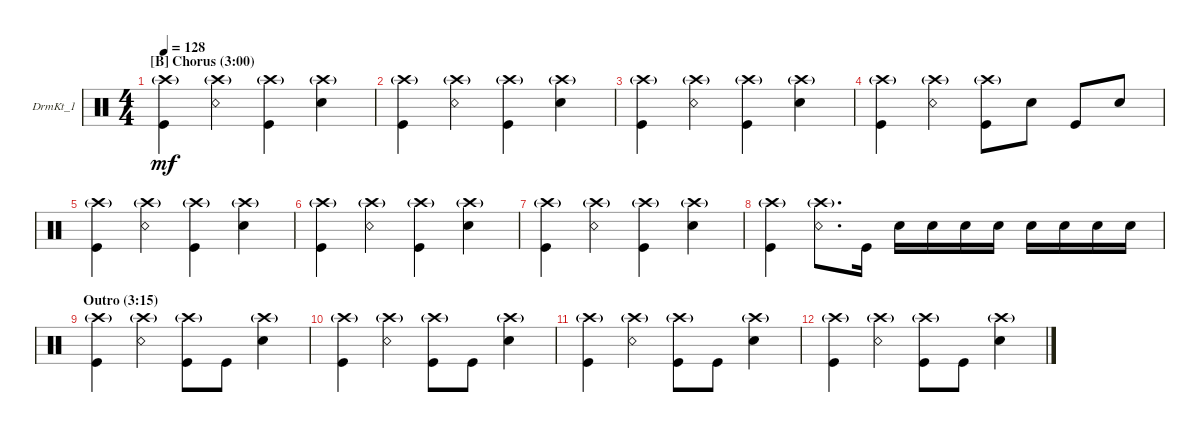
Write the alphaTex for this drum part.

\defaultSystemsLayout 4
\bracketExtendMode groupsimilarinstruments
\firstSystemTrackNameOrientation horizontal
\otherSystemsTrackNameOrientation horizontal
\track ("DrmKt_1" "DrmKt_1") {instrument percussion}
\staff {score}
\articulation defaults
\ts (4 4)
\section ("B" "Chorus (3:00)")
\tempo 128
\clef neutral
\ks c
("Kick (hit)" "Crash high (hit)"{g}).4{dy mf} ("Snare (rim shot)" "Crash high (hit)"{g}).4 ("Kick (hit)" "Crash high (hit)"{g}).4 ("Snare (hit) 2" "Crash high (hit)"{g}).4 |
("Kick (hit)" "Crash high (hit)"{g}).4 ("Snare (rim shot)" "Crash high (hit)"{g}).4 ("Kick (hit)" "Crash high (hit)"{g}).4 ("Snare (hit) 2" "Crash high (hit)"{g}).4 |
("Kick (hit)" "Crash high (hit)"{g}).4 ("Snare (rim shot)" "Crash high (hit)"{g}).4 ("Kick (hit)" "Crash high (hit)"{g}).4 ("Snare (hit) 2" "Crash high (hit)"{g}).4 |
("Kick (hit)" "Crash high (hit)"{g}).4 ("Snare (rim shot)" "Crash high (hit)"{g}).4 ("Kick (hit)" "Crash high (hit)"{g}).8 "Snare (hit) 2".8 "Kick (hit)".8 "Snare (hit) 2".8 |
("Kick (hit)" "Crash high (hit)"{g}).4 ("Snare (rim shot)" "Crash high (hit)"{g}).4 ("Kick (hit)" "Crash high (hit)"{g}).4 ("Snare (hit) 2" "Crash high (hit)"{g}).4 |
("Kick (hit)" "Crash high (hit)"{g}).4 ("Snare (rim shot)" "Crash high (hit)"{g}).4 ("Kick (hit)" "Crash high (hit)"{g}).4 ("Snare (hit) 2" "Crash high (hit)"{g}).4 |
("Kick (hit)" "Crash high (hit)"{g}).4 ("Snare (rim shot)" "Crash high (hit)"{g}).4 ("Kick (hit)" "Crash high (hit)"{g}).4 ("Snare (hit) 2" "Crash high (hit)"{g}).4 |
("Kick (hit)" "Crash high (hit)"{g}).4 ("Snare (rim shot)" "Crash high (hit)"{g}).8{d} "Kick (hit)".16 "Snare (hit) 2".16 "Snare (hit) 2".16 "Snare (hit) 2".16 "Snare (hit) 2".16 "Snare (hit) 2".16 "Snare (hit) 2".16 "Snare (hit) 2".16 "Snare (hit) 2".16 |
\section ("" "Outro (3:15)")
("Kick (hit)" "Crash high (hit)"{g}).4 ("Snare (rim shot)" "Crash high (hit)"{g}).4 ("Kick (hit)" "Crash high (hit)"{g}).8 "Kick (hit)".8 ("Snare (hit) 2" "Crash high (hit)"{g}).4 |
("Kick (hit)" "Crash high (hit)"{g}).4 ("Snare (rim shot)" "Crash high (hit)"{g}).4 ("Kick (hit)" "Crash high (hit)"{g}).8 "Kick (hit)".8 ("Snare (hit) 2" "Crash high (hit)"{g}).4 |
("Kick (hit)" "Crash high (hit)"{g}).4 ("Snare (rim shot)" "Crash high (hit)"{g}).4 ("Kick (hit)" "Crash high (hit)"{g}).8 "Kick (hit)".8 ("Snare (hit) 2" "Crash high (hit)"{g}).4 |
("Kick (hit)" "Crash high (hit)"{g}).4 ("Snare (rim shot)" "Crash high (hit)"{g}).4 ("Kick (hit)" "Crash high (hit)"{g}).8 "Kick (hit)".8 ("Snare (hit) 2" "Crash high (hit)"{g}).4
